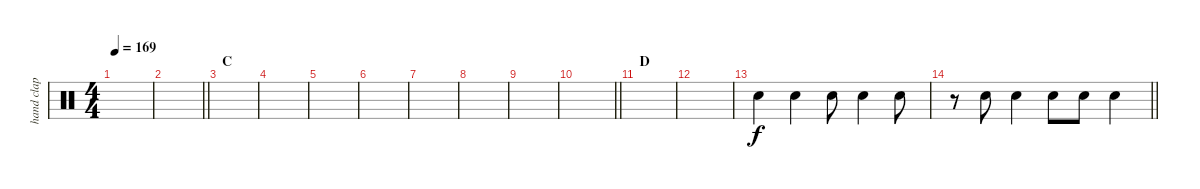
\track ("hand clap" "hand clap") {instrument percussion}
\staff {score}
\articulation defaults
\ts (4 4)
\tempo 169
\clef neutral
\ks c
|
\barLineRight lightlight
|
\section ("" "C")
|
|
|
|
|
|
|
\barLineRight lightlight
|
\section ("" "D")
|
|
"Hand Clap (hit)".4 "Hand Clap (hit)".4 "Hand Clap (hit)".8 "Hand Clap (hit)".4 "Hand Clap (hit)".8 |
\barLineRight lightlight
r.8 "Hand Clap (hit)".8 "Hand Clap (hit)".4 "Hand Clap (hit)".8 "Hand Clap (hit)".8 "Hand Clap (hit)".4
